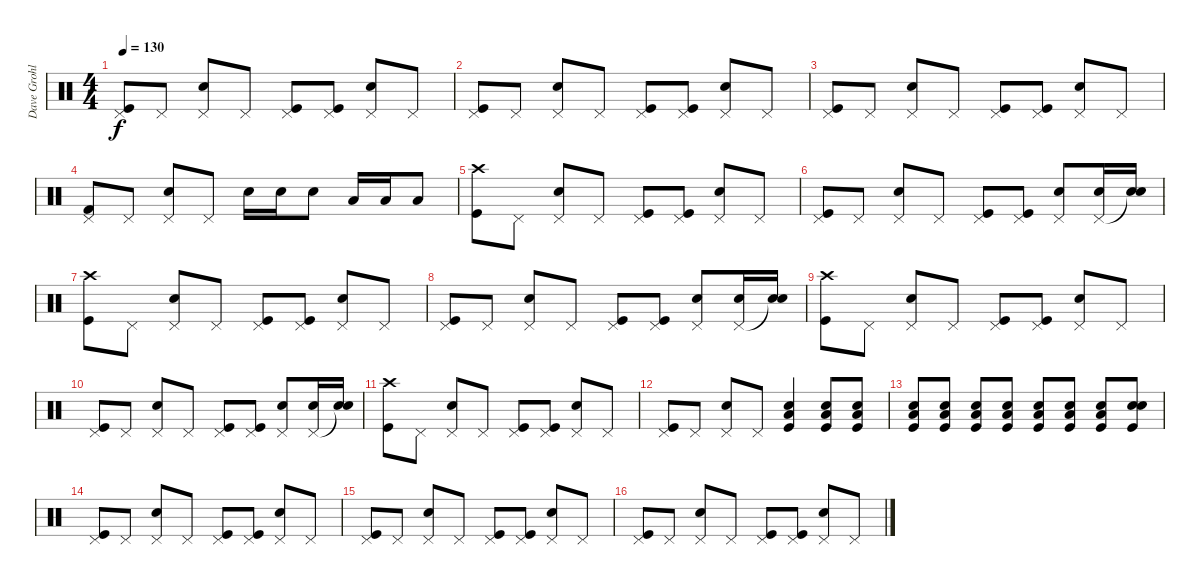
\track ("Dave Grohl" "Dave Grohl") {instrument percussion}
\staff {score}
\articulation defaults
\ts (4 4)
\tempo 130
\clef neutral
\ks c
("Pedal Hi-Hat (hit)" "Kick (hit)").8{dy f} "Pedal Hi-Hat (hit)".8 ("Pedal Hi-Hat (hit)" "Snare (hit) 2").8 "Pedal Hi-Hat (hit)".8 ("Pedal Hi-Hat (hit)" "Kick (hit)").8 ("Pedal Hi-Hat (hit)" "Kick (hit)").8 ("Pedal Hi-Hat (hit)" "Snare (hit) 2").8 "Pedal Hi-Hat (hit)".8 |
("Pedal Hi-Hat (hit)" "Kick (hit)").8 "Pedal Hi-Hat (hit)".8 ("Pedal Hi-Hat (hit)" "Snare (hit) 2").8 "Pedal Hi-Hat (hit)".8 ("Pedal Hi-Hat (hit)" "Kick (hit)").8 ("Pedal Hi-Hat (hit)" "Kick (hit)").8 ("Pedal Hi-Hat (hit)" "Snare (hit) 2").8 "Pedal Hi-Hat (hit)".8 |
("Pedal Hi-Hat (hit)" "Kick (hit)").8 "Pedal Hi-Hat (hit)".8 ("Pedal Hi-Hat (hit)" "Snare (hit) 2").8 "Pedal Hi-Hat (hit)".8 ("Pedal Hi-Hat (hit)" "Kick (hit)").8 ("Pedal Hi-Hat (hit)" "Kick (hit)").8 ("Pedal Hi-Hat (hit)" "Snare (hit) 2").8 "Pedal Hi-Hat (hit)".8 |
("Pedal Hi-Hat (hit)" "Kick (hit) 2").8 "Pedal Hi-Hat (hit)".8 ("Pedal Hi-Hat (hit)" "Snare (hit) 2").8 "Pedal Hi-Hat (hit)".8 "Snare (hit) 2".16 "Snare (hit) 2".16 "Snare (hit) 2".8 "Low Tom (hit)".16 "Low Tom (hit)".16 "Low Tom (hit)".8 |
("Crash high (hit)" "Kick (hit)").8 "Pedal Hi-Hat (hit)".8 ("Pedal Hi-Hat (hit)" "Snare (hit) 2").8 "Pedal Hi-Hat (hit)".8 ("Pedal Hi-Hat (hit)" "Kick (hit)").8 ("Pedal Hi-Hat (hit)" "Kick (hit)").8 ("Pedal Hi-Hat (hit)" "Snare (hit) 2").8 "Pedal Hi-Hat (hit)".8 |
("Pedal Hi-Hat (hit)" "Kick (hit)").8 "Pedal Hi-Hat (hit)".8 ("Pedal Hi-Hat (hit)" "Snare (hit) 2").8 "Pedal Hi-Hat (hit)".8 ("Pedal Hi-Hat (hit)" "Kick (hit)").8 ("Pedal Hi-Hat (hit)" "Kick (hit)").8 ("Pedal Hi-Hat (hit)" "Snare (hit) 2").8 ("Pedal Hi-Hat (hit)" "Snare (hit) 2").16 ("Snare (hit)"{t} "Snare (hit) 2").16 |
("Crash high (hit)" "Kick (hit)").8 "Pedal Hi-Hat (hit)".8 ("Pedal Hi-Hat (hit)" "Snare (hit) 2").8 "Pedal Hi-Hat (hit)".8 ("Pedal Hi-Hat (hit)" "Kick (hit)").8 ("Pedal Hi-Hat (hit)" "Kick (hit)").8 ("Pedal Hi-Hat (hit)" "Snare (hit) 2").8 "Pedal Hi-Hat (hit)".8 |
("Pedal Hi-Hat (hit)" "Kick (hit)").8 "Pedal Hi-Hat (hit)".8 ("Pedal Hi-Hat (hit)" "Snare (hit) 2").8 "Pedal Hi-Hat (hit)".8 ("Pedal Hi-Hat (hit)" "Kick (hit)").8 ("Pedal Hi-Hat (hit)" "Kick (hit)").8 ("Pedal Hi-Hat (hit)" "Snare (hit) 2").8 ("Pedal Hi-Hat (hit)" "Snare (hit) 2").16 ("Snare (hit)"{t} "Snare (hit) 2").16 |
("Crash high (hit)" "Kick (hit)").8 "Pedal Hi-Hat (hit)".8 ("Pedal Hi-Hat (hit)" "Snare (hit) 2").8 "Pedal Hi-Hat (hit)".8 ("Pedal Hi-Hat (hit)" "Kick (hit)").8 ("Pedal Hi-Hat (hit)" "Kick (hit)").8 ("Pedal Hi-Hat (hit)" "Snare (hit) 2").8 "Pedal Hi-Hat (hit)".8 |
("Pedal Hi-Hat (hit)" "Kick (hit)").8 "Pedal Hi-Hat (hit)".8 ("Pedal Hi-Hat (hit)" "Snare (hit) 2").8 "Pedal Hi-Hat (hit)".8 ("Pedal Hi-Hat (hit)" "Kick (hit)").8 ("Pedal Hi-Hat (hit)" "Kick (hit)").8 ("Pedal Hi-Hat (hit)" "Snare (hit) 2").8 ("Pedal Hi-Hat (hit)" "Snare (hit) 2").16 ("Snare (hit)"{t} "Snare (hit) 2").16 |
("Crash high (hit)" "Kick (hit)").8 "Pedal Hi-Hat (hit)".8 ("Pedal Hi-Hat (hit)" "Snare (hit) 2").8 "Pedal Hi-Hat (hit)".8 ("Pedal Hi-Hat (hit)" "Kick (hit)").8 ("Pedal Hi-Hat (hit)" "Kick (hit)").8 ("Pedal Hi-Hat (hit)" "Snare (hit) 2").8 "Pedal Hi-Hat (hit)".8 |
("Pedal Hi-Hat (hit)" "Kick (hit)").8 "Pedal Hi-Hat (hit)".8 ("Pedal Hi-Hat (hit)" "Snare (hit) 2").8 "Pedal Hi-Hat (hit)".8 ("Kick (hit)" "Snare (hit) 2" "Low Tom (hit)").4 ("Kick (hit)" "Snare (hit) 2" "Low Tom (hit)").8 ("Kick (hit)" "Snare (hit) 2" "Low Tom (hit)").8 |
("Kick (hit)" "Snare (hit) 2" "Low Tom (hit)").8 ("Kick (hit)" "Snare (hit) 2" "Low Tom (hit)").8 ("Kick (hit)" "Snare (hit) 2" "Low Tom (hit)").8 ("Kick (hit)" "Snare (hit) 2" "Low Tom (hit)").8 ("Kick (hit)" "Snare (hit) 2" "Low Tom (hit)").8 ("Kick (hit)" "Snare (hit) 2" "Low Tom (hit)").8 ("Kick (hit)" "Snare (hit) 2" "Low Tom (hit)").8 ("Kick (hit)" "Snare (hit) 2" "Snare (hit) 2").8 |
("Pedal Hi-Hat (hit)" "Kick (hit)").8 "Pedal Hi-Hat (hit)".8 ("Pedal Hi-Hat (hit)" "Snare (hit) 2").8 "Pedal Hi-Hat (hit)".8 ("Pedal Hi-Hat (hit)" "Kick (hit)").8 ("Pedal Hi-Hat (hit)" "Kick (hit)").8 ("Pedal Hi-Hat (hit)" "Snare (hit) 2").8 "Pedal Hi-Hat (hit)".8 |
("Pedal Hi-Hat (hit)" "Kick (hit)").8 "Pedal Hi-Hat (hit)".8 ("Pedal Hi-Hat (hit)" "Snare (hit) 2").8 "Pedal Hi-Hat (hit)".8 ("Pedal Hi-Hat (hit)" "Kick (hit)").8 ("Pedal Hi-Hat (hit)" "Kick (hit)").8 ("Pedal Hi-Hat (hit)" "Snare (hit) 2").8 "Pedal Hi-Hat (hit)".8 |
("Pedal Hi-Hat (hit)" "Kick (hit)").8 "Pedal Hi-Hat (hit)".8 ("Pedal Hi-Hat (hit)" "Snare (hit) 2").8 "Pedal Hi-Hat (hit)".8 ("Pedal Hi-Hat (hit)" "Kick (hit)").8 ("Pedal Hi-Hat (hit)" "Kick (hit)").8 ("Pedal Hi-Hat (hit)" "Snare (hit) 2").8 "Pedal Hi-Hat (hit)".8
